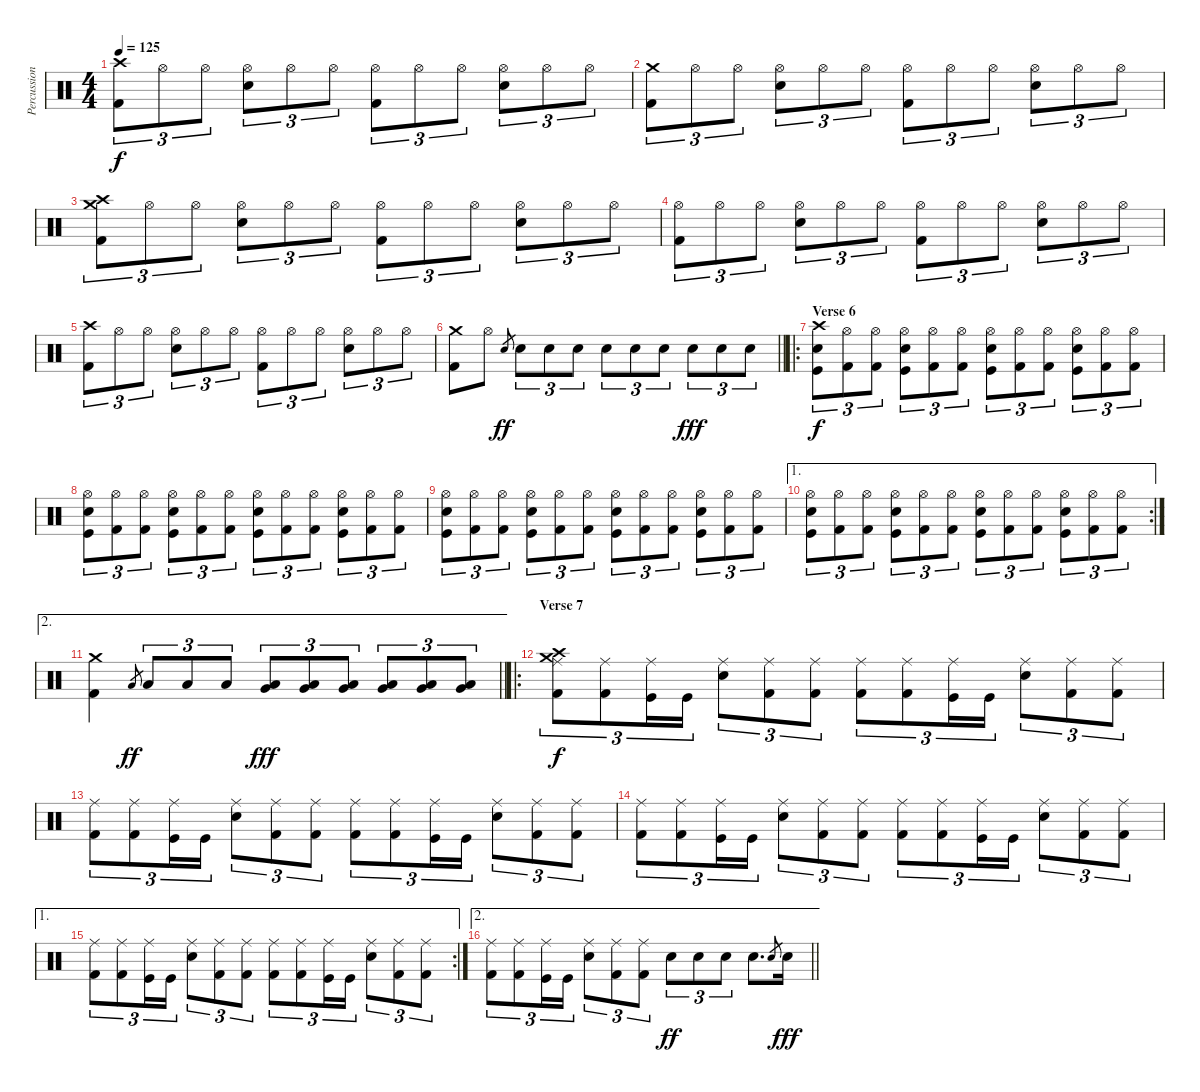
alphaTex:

\track ("Percussion" "Percussion") {instrument percussion}
\staff {score}
\articulation defaults
\ts (4 4)
\tempo 125
\clef neutral
\ks c
("Crash high (hit)" "Kick (hit) 2").8{tu (3 2) dy f} "Hi-Hat (open)".8{tu (3 2)} "Hi-Hat (open)".8{tu (3 2)} ("Snare (hit) 2" "Hi-Hat (open)").8{tu (3 2)} "Hi-Hat (open)".8{tu (3 2)} "Hi-Hat (open)".8{tu (3 2)} ("Hi-Hat (open)" "Kick (hit) 2").8{tu (3 2)} "Hi-Hat (open)".8{tu (3 2)} "Hi-Hat (open)".8{tu (3 2)} ("Snare (hit) 2" "Hi-Hat (open)").8{tu (3 2)} "Hi-Hat (open)".8{tu (3 2)} "Hi-Hat (open)".8{tu (3 2)} |
("Crash medium (hit)" "Kick (hit) 2").8{tu (3 2)} "Hi-Hat (open)".8{tu (3 2)} "Hi-Hat (open)".8{tu (3 2)} ("Snare (hit) 2" "Hi-Hat (open)").8{tu (3 2)} "Hi-Hat (open)".8{tu (3 2)} "Hi-Hat (open)".8{tu (3 2)} ("Hi-Hat (open)" "Kick (hit) 2").8{tu (3 2)} "Hi-Hat (open)".8{tu (3 2)} "Hi-Hat (open)".8{tu (3 2)} ("Snare (hit) 2" "Hi-Hat (open)").8{tu (3 2)} "Hi-Hat (open)".8{tu (3 2)} "Hi-Hat (open)".8{tu (3 2)} |
("Crash medium (hit)" "Crash high (hit)" "Kick (hit) 2").8{tu (3 2)} "Hi-Hat (open)".8{tu (3 2)} "Hi-Hat (open)".8{tu (3 2)} ("Snare (hit) 2" "Hi-Hat (open)").8{tu (3 2)} "Hi-Hat (open)".8{tu (3 2)} "Hi-Hat (open)".8{tu (3 2)} ("Hi-Hat (open)" "Kick (hit) 2").8{tu (3 2)} "Hi-Hat (open)".8{tu (3 2)} "Hi-Hat (open)".8{tu (3 2)} ("Snare (hit) 2" "Hi-Hat (open)").8{tu (3 2)} "Hi-Hat (open)".8{tu (3 2)} "Hi-Hat (open)".8{tu (3 2)} |
("Hi-Hat (open)" "Kick (hit) 2").8{tu (3 2)} "Hi-Hat (open)".8{tu (3 2)} "Hi-Hat (open)".8{tu (3 2)} ("Snare (hit) 2" "Hi-Hat (open)").8{tu (3 2)} "Hi-Hat (open)".8{tu (3 2)} "Hi-Hat (open)".8{tu (3 2)} ("Hi-Hat (open)" "Kick (hit) 2").8{tu (3 2)} "Hi-Hat (open)".8{tu (3 2)} "Hi-Hat (open)".8{tu (3 2)} ("Snare (hit) 2" "Hi-Hat (open)").8{tu (3 2)} "Hi-Hat (open)".8{tu (3 2)} "Hi-Hat (open)".8{tu (3 2)} |
("Crash high (hit)" "Kick (hit) 2").8{tu (3 2)} "Hi-Hat (open)".8{tu (3 2)} "Hi-Hat (open)".8{tu (3 2)} ("Snare (hit) 2" "Hi-Hat (open)").8{tu (3 2)} "Hi-Hat (open)".8{tu (3 2)} "Hi-Hat (open)".8{tu (3 2)} ("Hi-Hat (open)" "Kick (hit) 2").8{tu (3 2)} "Hi-Hat (open)".8{tu (3 2)} "Hi-Hat (open)".8{tu (3 2)} ("Snare (hit) 2" "Hi-Hat (open)").8{tu (3 2)} "Hi-Hat (open)".8{tu (3 2)} "Hi-Hat (open)".8{tu (3 2)} |
\barLineRight lightlight
("Crash medium (hit)" "Kick (hit) 2").8 "Hi-Hat (open)".8 "Snare (hit) 2".8{gr dy ff} "Snare (hit) 2".8{tu (3 2)} "Snare (hit) 2".8{tu (3 2)} "Snare (hit) 2".8{tu (3 2)} "Snare (hit) 2".8{tu (3 2)} "Snare (hit) 2".8{tu (3 2)} "Snare (hit) 2".8{tu (3 2)} "Snare (hit) 2".8{tu (3 2) dy fff} "Snare (hit) 2".8{tu (3 2)} "Snare (hit) 2".8{tu (3 2)} |
\ro
\section ("" "Verse 6")
("Snare (hit) 2" "Kick (hit)" "Crash high (hit)").8{tu (3 2) dy f} ("Kick (hit) 2" "Hi-Hat (open)").8{tu (3 2)} ("Kick (hit) 2" "Hi-Hat (open)").8{tu (3 2)} ("Snare (hit) 2" "Kick (hit)" "Hi-Hat (open)").8{tu (3 2)} ("Kick (hit) 2" "Hi-Hat (open)").8{tu (3 2)} ("Kick (hit) 2" "Hi-Hat (open)").8{tu (3 2)} ("Snare (hit) 2" "Kick (hit)" "Hi-Hat (open)").8{tu (3 2)} ("Kick (hit) 2" "Hi-Hat (open)").8{tu (3 2)} ("Kick (hit) 2" "Hi-Hat (open)").8{tu (3 2)} ("Snare (hit) 2" "Kick (hit)" "Hi-Hat (open)").8{tu (3 2)} ("Kick (hit) 2" "Hi-Hat (open)").8{tu (3 2)} ("Kick (hit) 2" "Hi-Hat (open)").8{tu (3 2)} |
("Snare (hit) 2" "Kick (hit)" "Hi-Hat (open)").8{tu (3 2)} ("Kick (hit) 2" "Hi-Hat (open)").8{tu (3 2)} ("Kick (hit) 2" "Hi-Hat (open)").8{tu (3 2)} ("Snare (hit) 2" "Kick (hit)" "Hi-Hat (open)").8{tu (3 2)} ("Kick (hit) 2" "Hi-Hat (open)").8{tu (3 2)} ("Kick (hit) 2" "Hi-Hat (open)").8{tu (3 2)} ("Snare (hit) 2" "Kick (hit)" "Hi-Hat (open)").8{tu (3 2)} ("Kick (hit) 2" "Hi-Hat (open)").8{tu (3 2)} ("Kick (hit) 2" "Hi-Hat (open)").8{tu (3 2)} ("Snare (hit) 2" "Kick (hit)" "Hi-Hat (open)").8{tu (3 2)} ("Kick (hit) 2" "Hi-Hat (open)").8{tu (3 2)} ("Kick (hit) 2" "Hi-Hat (open)").8{tu (3 2)} |
("Snare (hit) 2" "Kick (hit)" "Hi-Hat (open)").8{tu (3 2)} ("Kick (hit) 2" "Hi-Hat (open)").8{tu (3 2)} ("Kick (hit) 2" "Hi-Hat (open)").8{tu (3 2)} ("Snare (hit) 2" "Kick (hit)" "Hi-Hat (open)").8{tu (3 2)} ("Kick (hit) 2" "Hi-Hat (open)").8{tu (3 2)} ("Kick (hit) 2" "Hi-Hat (open)").8{tu (3 2)} ("Snare (hit) 2" "Kick (hit)" "Hi-Hat (open)").8{tu (3 2)} ("Kick (hit) 2" "Hi-Hat (open)").8{tu (3 2)} ("Kick (hit) 2" "Hi-Hat (open)").8{tu (3 2)} ("Snare (hit) 2" "Kick (hit)" "Hi-Hat (open)").8{tu (3 2)} ("Kick (hit) 2" "Hi-Hat (open)").8{tu (3 2)} ("Kick (hit) 2" "Hi-Hat (open)").8{tu (3 2)} |
\ae 1
\rc 2
("Snare (hit) 2" "Kick (hit)" "Hi-Hat (open)").8{tu (3 2)} ("Kick (hit) 2" "Hi-Hat (open)").8{tu (3 2)} ("Kick (hit) 2" "Hi-Hat (open)").8{tu (3 2)} ("Snare (hit) 2" "Kick (hit)" "Hi-Hat (open)").8{tu (3 2)} ("Kick (hit) 2" "Hi-Hat (open)").8{tu (3 2)} ("Kick (hit) 2" "Hi-Hat (open)").8{tu (3 2)} ("Snare (hit) 2" "Kick (hit)" "Hi-Hat (open)").8{tu (3 2)} ("Kick (hit) 2" "Hi-Hat (open)").8{tu (3 2)} ("Kick (hit) 2" "Hi-Hat (open)").8{tu (3 2)} ("Snare (hit) 2" "Kick (hit)" "Hi-Hat (open)").8{tu (3 2)} ("Kick (hit) 2" "Hi-Hat (open)").8{tu (3 2)} ("Kick (hit) 2" "Hi-Hat (open)").8{tu (3 2)} |
\ae 2
\barLineRight lightlight
("Crash medium (hit)" "Kick (hit) 2").4 "Low Tom (hit)".8{gr dy ff} "Low Tom (hit)".8{tu (3 2)} "Low Tom (hit)".8{tu (3 2)} "Low Tom (hit)".8{tu (3 2)} ("Very Low Tom (hit)" "Low Tom (hit)").8{tu (3 2) dy fff} ("Very Low Tom (hit)" "Low Tom (hit)").8{tu (3 2)} ("Very Low Tom (hit)" "Low Tom (hit)").8{tu (3 2)} ("Low Floor Tom (hit)" "Very Low Tom (hit)").8{tu (3 2)} ("Low Floor Tom (hit)" "Very Low Tom (hit)").8{tu (3 2)} ("Low Floor Tom (hit)" "Very Low Tom (hit)").8{tu (3 2)} |
\ro
\section ("" "Verse 7")
("Ride (middle)" "Kick (hit) 2" "Crash high (hit)" "Crash medium (hit)").8{tu (3 2) dy f} ("Ride (middle)" "Kick (hit) 2").8{tu (3 2)} ("Kick (hit)" "Ride (middle)").16{tu (3 2)} "Kick (hit)".16{tu (3 2)} ("Snare (hit) 2" "Ride (middle)").8{tu (3 2)} ("Ride (middle)" "Kick (hit) 2").8{tu (3 2)} ("Ride (middle)" "Kick (hit) 2").8{tu (3 2)} ("Ride (middle)" "Kick (hit) 2").8{tu (3 2)} ("Ride (middle)" "Kick (hit) 2").8{tu (3 2)} ("Kick (hit)" "Ride (middle)").16{tu (3 2)} "Kick (hit)".16{tu (3 2)} ("Snare (hit) 2" "Ride (middle)").8{tu (3 2)} ("Ride (middle)" "Kick (hit) 2").8{tu (3 2)} ("Ride (middle)" "Kick (hit) 2").8{tu (3 2)} |
("Kick (hit) 2" "Ride (middle)").8{tu (3 2)} ("Ride (middle)" "Kick (hit) 2").8{tu (3 2)} ("Kick (hit)" "Ride (middle)").16{tu (3 2)} "Kick (hit)".16{tu (3 2)} ("Snare (hit) 2" "Ride (middle)").8{tu (3 2)} ("Ride (middle)" "Kick (hit) 2").8{tu (3 2)} ("Ride (middle)" "Kick (hit) 2").8{tu (3 2)} ("Ride (middle)" "Kick (hit) 2").8{tu (3 2)} ("Ride (middle)" "Kick (hit) 2").8{tu (3 2)} ("Kick (hit)" "Ride (middle)").16{tu (3 2)} "Kick (hit)".16{tu (3 2)} ("Snare (hit) 2" "Ride (middle)").8{tu (3 2)} ("Ride (middle)" "Kick (hit) 2").8{tu (3 2)} ("Ride (middle)" "Kick (hit) 2").8{tu (3 2)} |
("Kick (hit) 2" "Ride (middle)").8{tu (3 2)} ("Ride (middle)" "Kick (hit) 2").8{tu (3 2)} ("Kick (hit)" "Ride (middle)").16{tu (3 2)} "Kick (hit)".16{tu (3 2)} ("Snare (hit) 2" "Ride (middle)").8{tu (3 2)} ("Ride (middle)" "Kick (hit) 2").8{tu (3 2)} ("Ride (middle)" "Kick (hit) 2").8{tu (3 2)} ("Ride (middle)" "Kick (hit) 2").8{tu (3 2)} ("Ride (middle)" "Kick (hit) 2").8{tu (3 2)} ("Kick (hit)" "Ride (middle)").16{tu (3 2)} "Kick (hit)".16{tu (3 2)} ("Snare (hit) 2" "Ride (middle)").8{tu (3 2)} ("Ride (middle)" "Kick (hit) 2").8{tu (3 2)} ("Ride (middle)" "Kick (hit) 2").8{tu (3 2)} |
\ae 1
\rc 2
("Kick (hit) 2" "Ride (middle)").8{tu (3 2)} ("Ride (middle)" "Kick (hit) 2").8{tu (3 2)} ("Kick (hit)" "Ride (middle)").16{tu (3 2)} "Kick (hit)".16{tu (3 2)} ("Snare (hit) 2" "Ride (middle)").8{tu (3 2)} ("Ride (middle)" "Kick (hit) 2").8{tu (3 2)} ("Ride (middle)" "Kick (hit) 2").8{tu (3 2)} ("Ride (middle)" "Kick (hit) 2").8{tu (3 2)} ("Ride (middle)" "Kick (hit) 2").8{tu (3 2)} ("Kick (hit)" "Ride (middle)").16{tu (3 2)} "Kick (hit)".16{tu (3 2)} ("Snare (hit) 2" "Ride (middle)").8{tu (3 2)} ("Ride (middle)" "Kick (hit) 2").8{tu (3 2)} ("Ride (middle)" "Kick (hit) 2").8{tu (3 2)} |
\ae 2
\barLineRight lightlight
("Kick (hit) 2" "Ride (middle)").8{tu (3 2)} ("Ride (middle)" "Kick (hit) 2").8{tu (3 2)} ("Kick (hit)" "Ride (middle)").16{tu (3 2)} "Kick (hit)".16{tu (3 2)} ("Snare (hit) 2" "Ride (middle)").8{tu (3 2)} ("Ride (middle)" "Kick (hit) 2").8{tu (3 2)} ("Ride (middle)" "Kick (hit) 2").8{tu (3 2)} "Snare (hit) 2".8{tu (3 2) dy ff} "Snare (hit) 2".8{tu (3 2)} "Snare (hit) 2".8{tu (3 2)} "Snare (hit) 2".8{d} "Snare (hit) 2".8{gr} "Snare (hit) 2".16{dy fff}
